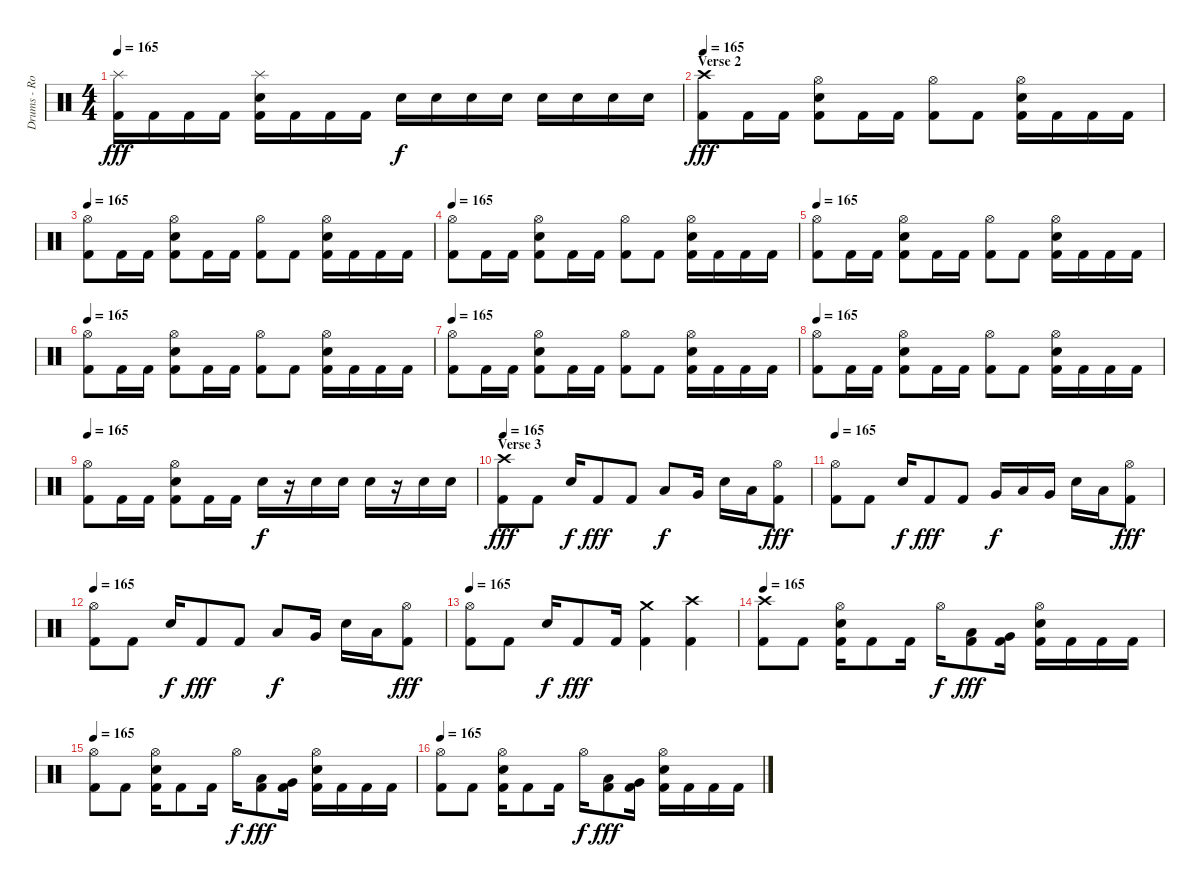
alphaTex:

\track ("Drums - Rodrigo" "Drums - Ro") {instrument percussion}
\staff {score}
\articulation defaults
\ts (4 4)
\tempo 165
\clef neutral
\ks c
("Splash (hit)" "Kick (hit) 2").16{dy fff} "Kick (hit) 2".16 "Kick (hit) 2".16 "Kick (hit) 2".16 ("Splash (hit)" "Electric Snare (hit)" "Kick (hit) 2").16 "Kick (hit) 2".16 "Kick (hit) 2".16 "Kick (hit) 2".16 "Electric Snare (hit)".16{dy f} "Electric Snare (hit)".16 "Electric Snare (hit)".16 "Electric Snare (hit)".16 "Electric Snare (hit)".16 "Electric Snare (hit)".16 "Electric Snare (hit)".16 "Electric Snare (hit)".16 |
\section ("" "Verse 2")
\tempo 165
("Crash high (hit)" "Kick (hit) 2").8{dy fff} "Kick (hit) 2".16 "Kick (hit) 2".16 ("Hi-Hat (open)" "Electric Snare (hit)" "Kick (hit) 2").8 "Kick (hit) 2".16 "Kick (hit) 2".16 ("Hi-Hat (open)" "Kick (hit) 2").8 "Kick (hit) 2".8 ("Hi-Hat (open)" "Electric Snare (hit)" "Kick (hit) 2").16 "Kick (hit) 2".16 "Kick (hit) 2".16 "Kick (hit) 2".16 |
\tempo 165
("Hi-Hat (open)" "Kick (hit) 2").8 "Kick (hit) 2".16 "Kick (hit) 2".16 ("Hi-Hat (open)" "Electric Snare (hit)" "Kick (hit) 2").8 "Kick (hit) 2".16 "Kick (hit) 2".16 ("Hi-Hat (open)" "Kick (hit) 2").8 "Kick (hit) 2".8 ("Hi-Hat (open)" "Electric Snare (hit)" "Kick (hit) 2").16 "Kick (hit) 2".16 "Kick (hit) 2".16 "Kick (hit) 2".16 |
\tempo 165
("Hi-Hat (open)" "Kick (hit) 2").8 "Kick (hit) 2".16 "Kick (hit) 2".16 ("Hi-Hat (open)" "Electric Snare (hit)" "Kick (hit) 2").8 "Kick (hit) 2".16 "Kick (hit) 2".16 ("Hi-Hat (open)" "Kick (hit) 2").8 "Kick (hit) 2".8 ("Hi-Hat (open)" "Electric Snare (hit)" "Kick (hit) 2").16 "Kick (hit) 2".16 "Kick (hit) 2".16 "Kick (hit) 2".16 |
\tempo 165
("Hi-Hat (open)" "Kick (hit) 2").8 "Kick (hit) 2".16 "Kick (hit) 2".16 ("Hi-Hat (open)" "Electric Snare (hit)" "Kick (hit) 2").8 "Kick (hit) 2".16 "Kick (hit) 2".16 ("Hi-Hat (open)" "Kick (hit) 2").8 "Kick (hit) 2".8 ("Hi-Hat (open)" "Electric Snare (hit)" "Kick (hit) 2").16 "Kick (hit) 2".16 "Kick (hit) 2".16 "Kick (hit) 2".16 |
\tempo 165
("Hi-Hat (open)" "Kick (hit) 2").8 "Kick (hit) 2".16 "Kick (hit) 2".16 ("Hi-Hat (open)" "Electric Snare (hit)" "Kick (hit) 2").8 "Kick (hit) 2".16 "Kick (hit) 2".16 ("Hi-Hat (open)" "Kick (hit) 2").8 "Kick (hit) 2".8 ("Hi-Hat (open)" "Electric Snare (hit)" "Kick (hit) 2").16 "Kick (hit) 2".16 "Kick (hit) 2".16 "Kick (hit) 2".16 |
\tempo 165
("Hi-Hat (open)" "Kick (hit) 2").8 "Kick (hit) 2".16 "Kick (hit) 2".16 ("Hi-Hat (open)" "Electric Snare (hit)" "Kick (hit) 2").8 "Kick (hit) 2".16 "Kick (hit) 2".16 ("Hi-Hat (open)" "Kick (hit) 2").8 "Kick (hit) 2".8 ("Hi-Hat (open)" "Electric Snare (hit)" "Kick (hit) 2").16 "Kick (hit) 2".16 "Kick (hit) 2".16 "Kick (hit) 2".16 |
\tempo 165
("Hi-Hat (open)" "Kick (hit) 2").8 "Kick (hit) 2".16 "Kick (hit) 2".16 ("Hi-Hat (open)" "Electric Snare (hit)" "Kick (hit) 2").8 "Kick (hit) 2".16 "Kick (hit) 2".16 ("Hi-Hat (open)" "Kick (hit) 2").8 "Kick (hit) 2".8 ("Hi-Hat (open)" "Electric Snare (hit)" "Kick (hit) 2").16 "Kick (hit) 2".16 "Kick (hit) 2".16 "Kick (hit) 2".16 |
\tempo 165
("Hi-Hat (open)" "Kick (hit) 2").8 "Kick (hit) 2".16 "Kick (hit) 2".16 ("Hi-Hat (open)" "Electric Snare (hit)" "Kick (hit) 2").8 "Kick (hit) 2".16 "Kick (hit) 2".16 "Electric Snare (hit)".16{dy f} r.16 "Electric Snare (hit)".16 "Electric Snare (hit)".16 "Electric Snare (hit)".16 r.16 "Electric Snare (hit)".16 "Electric Snare (hit)".16 |
\section ("" "Verse 3")
\tempo 165
("Crash high (hit)" "Kick (hit) 2").8{dy fff} "Kick (hit) 2".8 "Electric Snare (hit)".16{dy f} "Kick (hit) 2".8{dy fff} "Kick (hit) 2".8 "Low Tom (hit)".8{dy f} "Very Low Tom (hit)".16 "Electric Snare (hit)".16 "Low Floor Tom (hit)".16 ("Hi-Hat (open)" "Kick (hit) 2").8{dy fff} |
\tempo 165
("Hi-Hat (open)" "Kick (hit) 2").8 "Kick (hit) 2".8 "Electric Snare (hit)".16{dy f} "Kick (hit) 2".8{dy fff} "Kick (hit) 2".8 "Very Low Tom (hit)".16{dy f} "Low Tom (hit)".16 "Very Low Tom (hit)".16 "Electric Snare (hit)".16 "Low Floor Tom (hit)".16 ("Hi-Hat (open)" "Kick (hit) 2").8{dy fff} |
\tempo 165
("Hi-Hat (open)" "Kick (hit) 2").8 "Kick (hit) 2".8 "Electric Snare (hit)".16{dy f} "Kick (hit) 2".8{dy fff} "Kick (hit) 2".8 "Low Tom (hit)".8{dy f} "Very Low Tom (hit)".16 "Electric Snare (hit)".16 "Low Floor Tom (hit)".16 ("Hi-Hat (open)" "Kick (hit) 2").8{dy fff} |
\tempo 165
("Hi-Hat (open)" "Kick (hit) 2").8 "Kick (hit) 2".8 "Electric Snare (hit)".16{dy f} "Kick (hit) 2".8{dy fff} "Kick (hit) 2".16 ("Crash medium (hit)" "Kick (hit) 2").4 ("Crash high (hit)" "Kick (hit) 2").4 |
\tempo 165
("Crash high (hit)" "Kick (hit) 2").8 "Kick (hit) 2".8 ("Hi-Hat (open)" "Electric Snare (hit)" "Kick (hit) 2").16 "Kick (hit) 2".8 "Kick (hit) 2".16 "Hi-Hat (open)".16{dy f} ("Low Tom (hit)" "Kick (hit) 2").8{dy fff} ("Very Low Tom (hit)" "Kick (hit) 2").16 ("Hi-Hat (open)" "Electric Snare (hit)" "Kick (hit) 2").16 "Kick (hit) 2".16 "Kick (hit) 2".16 "Kick (hit) 2".16 |
\tempo 165
("Hi-Hat (open)" "Kick (hit) 2").8 "Kick (hit) 2".8 ("Hi-Hat (open)" "Electric Snare (hit)" "Kick (hit) 2").16 "Kick (hit) 2".8 "Kick (hit) 2".16 "Hi-Hat (open)".16{dy f} ("Low Tom (hit)" "Kick (hit) 2").8{dy fff} ("Very Low Tom (hit)" "Kick (hit) 2").16 ("Hi-Hat (open)" "Electric Snare (hit)" "Kick (hit) 2").16 "Kick (hit) 2".16 "Kick (hit) 2".16 "Kick (hit) 2".16 |
\tempo 165
("Hi-Hat (open)" "Kick (hit) 2").8 "Kick (hit) 2".8 ("Hi-Hat (open)" "Electric Snare (hit)" "Kick (hit) 2").16 "Kick (hit) 2".8 "Kick (hit) 2".16 "Hi-Hat (open)".16{dy f} ("Low Tom (hit)" "Kick (hit) 2").8{dy fff} ("Very Low Tom (hit)" "Kick (hit) 2").16 ("Hi-Hat (open)" "Electric Snare (hit)" "Kick (hit) 2").16 "Kick (hit) 2".16 "Kick (hit) 2".16 "Kick (hit) 2".16
